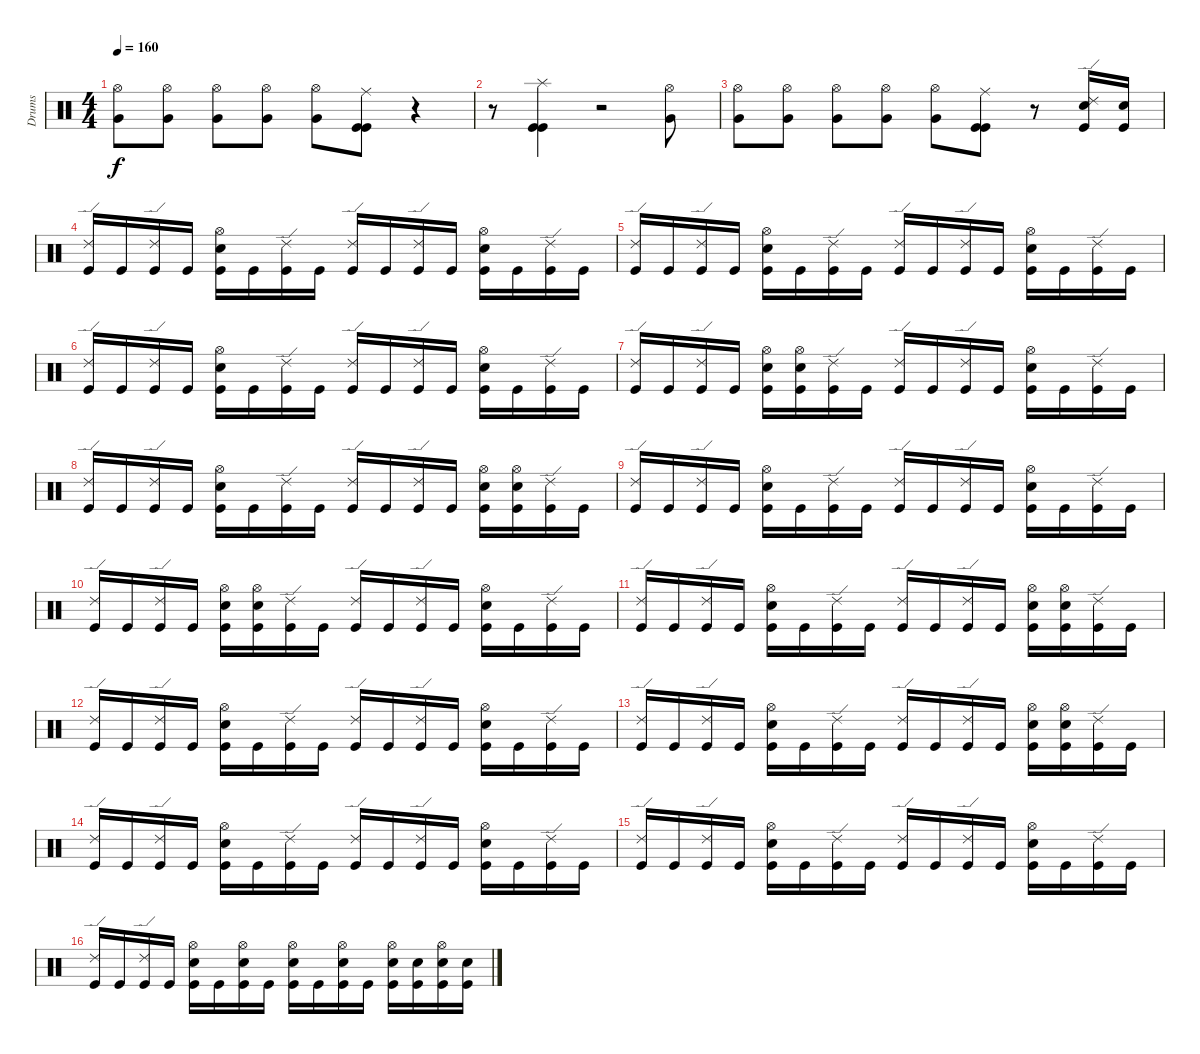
\track ("Drums" "Drums") {instrument percussion}
\staff {score}
\articulation defaults
\ts (4 4)
\tempo 160
\clef neutral
\ks c
("Hi-Hat (open)" "Very Low Tom (hit)").8{dy f} ("Hi-Hat (open)" "Very Low Tom (hit)").8 ("Hi-Hat (open)" "Very Low Tom (hit)").8 ("Hi-Hat (open)" "Very Low Tom (hit)").8 ("Hi-Hat (open)" "Very Low Tom (hit)").8 ("Ride (middle)" "Kick (hit)" "Kick (hit)").8 r.4 |
r.8 ("Splash (hit)" "Kick (hit)" "Kick (hit)").4 r.2 ("Hi-Hat (open)" "Very Low Tom (hit)").8 |
("Hi-Hat (open)" "Very Low Tom (hit)").8 ("Hi-Hat (open)" "Very Low Tom (hit)").8 ("Hi-Hat (open)" "Very Low Tom (hit)").8 ("Hi-Hat (open)" "Very Low Tom (hit)").8 ("Hi-Hat (open)" "Very Low Tom (hit)").8 ("Ride (middle)" "Kick (hit)" "Kick (hit)").8 r.8 ("Ride (edge) 2" "Snare (hit) 2" "Kick (hit)").16 ("Snare (hit) 2" "Kick (hit)").16 |
("Ride (edge) 2" "Kick (hit)").16 "Kick (hit)".16 ("Ride (edge) 2" "Kick (hit)").16 "Kick (hit)".16 ("Hi-Hat (open)" "Snare (hit) 2" "Kick (hit)").16 "Kick (hit)".16 ("Ride (edge) 2" "Kick (hit)").16 "Kick (hit)".16 ("Ride (edge) 2" "Kick (hit)").16 "Kick (hit)".16 ("Ride (edge) 2" "Kick (hit)").16 "Kick (hit)".16 ("Hi-Hat (open)" "Snare (hit) 2" "Kick (hit)").16 "Kick (hit)".16 ("Ride (edge) 2" "Kick (hit)").16 "Kick (hit)".16 |
("Ride (edge) 2" "Kick (hit)").16 "Kick (hit)".16 ("Ride (edge) 2" "Kick (hit)").16 "Kick (hit)".16 ("Hi-Hat (open)" "Snare (hit) 2" "Kick (hit)").16 "Kick (hit)".16 ("Ride (edge) 2" "Kick (hit)").16 "Kick (hit)".16 ("Ride (edge) 2" "Kick (hit)").16 "Kick (hit)".16 ("Ride (edge) 2" "Kick (hit)").16 "Kick (hit)".16 ("Hi-Hat (open)" "Snare (hit) 2" "Kick (hit)").16 "Kick (hit)".16 ("Ride (edge) 2" "Kick (hit)").16 "Kick (hit)".16 |
("Ride (edge) 2" "Kick (hit)").16 "Kick (hit)".16 ("Ride (edge) 2" "Kick (hit)").16 "Kick (hit)".16 ("Hi-Hat (open)" "Snare (hit) 2" "Kick (hit)").16 "Kick (hit)".16 ("Ride (edge) 2" "Kick (hit)").16 "Kick (hit)".16 ("Ride (edge) 2" "Kick (hit)").16 "Kick (hit)".16 ("Ride (edge) 2" "Kick (hit)").16 "Kick (hit)".16 ("Hi-Hat (open)" "Snare (hit) 2" "Kick (hit)").16 "Kick (hit)".16 ("Ride (edge) 2" "Kick (hit)").16 "Kick (hit)".16 |
("Ride (edge) 2" "Kick (hit)").16 "Kick (hit)".16 ("Ride (edge) 2" "Kick (hit)").16 "Kick (hit)".16 ("Hi-Hat (open)" "Snare (hit) 2" "Kick (hit)").16 ("Hi-Hat (open)" "Snare (hit) 2" "Kick (hit)").16 ("Ride (edge) 2" "Kick (hit)").16 "Kick (hit)".16 ("Ride (edge) 2" "Kick (hit)").16 "Kick (hit)".16 ("Ride (edge) 2" "Kick (hit)").16 "Kick (hit)".16 ("Hi-Hat (open)" "Snare (hit) 2" "Kick (hit)").16 "Kick (hit)".16 ("Ride (edge) 2" "Kick (hit)").16 "Kick (hit)".16 |
("Ride (edge) 2" "Kick (hit)").16 "Kick (hit)".16 ("Ride (edge) 2" "Kick (hit)").16 "Kick (hit)".16 ("Hi-Hat (open)" "Snare (hit) 2" "Kick (hit)").16 "Kick (hit)".16 ("Ride (edge) 2" "Kick (hit)").16 "Kick (hit)".16 ("Ride (edge) 2" "Kick (hit)").16 "Kick (hit)".16 ("Ride (edge) 2" "Kick (hit)").16 "Kick (hit)".16 ("Hi-Hat (open)" "Snare (hit) 2" "Kick (hit)").16 ("Hi-Hat (open)" "Snare (hit) 2" "Kick (hit)").16 ("Ride (edge) 2" "Kick (hit)").16 "Kick (hit)".16 |
("Ride (edge) 2" "Kick (hit)").16 "Kick (hit)".16 ("Ride (edge) 2" "Kick (hit)").16 "Kick (hit)".16 ("Hi-Hat (open)" "Snare (hit) 2" "Kick (hit)").16 "Kick (hit)".16 ("Ride (edge) 2" "Kick (hit)").16 "Kick (hit)".16 ("Ride (edge) 2" "Kick (hit)").16 "Kick (hit)".16 ("Ride (edge) 2" "Kick (hit)").16 "Kick (hit)".16 ("Hi-Hat (open)" "Snare (hit) 2" "Kick (hit)").16 "Kick (hit)".16 ("Ride (edge) 2" "Kick (hit)").16 "Kick (hit)".16 |
("Ride (edge) 2" "Kick (hit)").16 "Kick (hit)".16 ("Ride (edge) 2" "Kick (hit)").16 "Kick (hit)".16 ("Hi-Hat (open)" "Snare (hit) 2" "Kick (hit)").16 ("Hi-Hat (open)" "Snare (hit) 2" "Kick (hit)").16 ("Ride (edge) 2" "Kick (hit)").16 "Kick (hit)".16 ("Ride (edge) 2" "Kick (hit)").16 "Kick (hit)".16 ("Ride (edge) 2" "Kick (hit)").16 "Kick (hit)".16 ("Hi-Hat (open)" "Snare (hit) 2" "Kick (hit)").16 "Kick (hit)".16 ("Ride (edge) 2" "Kick (hit)").16 "Kick (hit)".16 |
("Ride (edge) 2" "Kick (hit)").16 "Kick (hit)".16 ("Ride (edge) 2" "Kick (hit)").16 "Kick (hit)".16 ("Hi-Hat (open)" "Snare (hit) 2" "Kick (hit)").16 "Kick (hit)".16 ("Ride (edge) 2" "Kick (hit)").16 "Kick (hit)".16 ("Ride (edge) 2" "Kick (hit)").16 "Kick (hit)".16 ("Ride (edge) 2" "Kick (hit)").16 "Kick (hit)".16 ("Hi-Hat (open)" "Snare (hit) 2" "Kick (hit)").16 ("Hi-Hat (open)" "Snare (hit) 2" "Kick (hit)").16 ("Ride (edge) 2" "Kick (hit)").16 "Kick (hit)".16 |
("Ride (edge) 2" "Kick (hit)").16 "Kick (hit)".16 ("Ride (edge) 2" "Kick (hit)").16 "Kick (hit)".16 ("Hi-Hat (open)" "Snare (hit) 2" "Kick (hit)").16 "Kick (hit)".16 ("Ride (edge) 2" "Kick (hit)").16 "Kick (hit)".16 ("Ride (edge) 2" "Kick (hit)").16 "Kick (hit)".16 ("Ride (edge) 2" "Kick (hit)").16 "Kick (hit)".16 ("Hi-Hat (open)" "Snare (hit) 2" "Kick (hit)").16 "Kick (hit)".16 ("Ride (edge) 2" "Kick (hit)").16 "Kick (hit)".16 |
("Ride (edge) 2" "Kick (hit)").16 "Kick (hit)".16 ("Ride (edge) 2" "Kick (hit)").16 "Kick (hit)".16 ("Hi-Hat (open)" "Snare (hit) 2" "Kick (hit)").16 "Kick (hit)".16 ("Ride (edge) 2" "Kick (hit)").16 "Kick (hit)".16 ("Ride (edge) 2" "Kick (hit)").16 "Kick (hit)".16 ("Ride (edge) 2" "Kick (hit)").16 "Kick (hit)".16 ("Hi-Hat (open)" "Snare (hit) 2" "Kick (hit)").16 ("Hi-Hat (open)" "Snare (hit) 2" "Kick (hit)").16 ("Ride (edge) 2" "Kick (hit)").16 "Kick (hit)".16 |
("Ride (edge) 2" "Kick (hit)").16 "Kick (hit)".16 ("Ride (edge) 2" "Kick (hit)").16 "Kick (hit)".16 ("Hi-Hat (open)" "Snare (hit) 2" "Kick (hit)").16 "Kick (hit)".16 ("Ride (edge) 2" "Kick (hit)").16 "Kick (hit)".16 ("Ride (edge) 2" "Kick (hit)").16 "Kick (hit)".16 ("Ride (edge) 2" "Kick (hit)").16 "Kick (hit)".16 ("Hi-Hat (open)" "Snare (hit) 2" "Kick (hit)").16 "Kick (hit)".16 ("Ride (edge) 2" "Kick (hit)").16 "Kick (hit)".16 |
("Ride (edge) 2" "Kick (hit)").16 "Kick (hit)".16 ("Ride (edge) 2" "Kick (hit)").16 "Kick (hit)".16 ("Hi-Hat (open)" "Snare (hit) 2" "Kick (hit)").16 "Kick (hit)".16 ("Ride (edge) 2" "Kick (hit)").16 "Kick (hit)".16 ("Ride (edge) 2" "Kick (hit)").16 "Kick (hit)".16 ("Ride (edge) 2" "Kick (hit)").16 "Kick (hit)".16 ("Hi-Hat (open)" "Snare (hit) 2" "Kick (hit)").16 "Kick (hit)".16 ("Ride (edge) 2" "Kick (hit)").16 "Kick (hit)".16 |
("Ride (edge) 2" "Kick (hit)").16 "Kick (hit)".16 ("Ride (edge) 2" "Kick (hit)").16 "Kick (hit)".16 ("Hi-Hat (open)" "Snare (hit) 2" "Kick (hit)").16 "Kick (hit)".16 ("Hi-Hat (open)" "Snare (hit) 2" "Kick (hit)").16 "Kick (hit)".16 ("Hi-Hat (open)" "Snare (hit) 2" "Kick (hit)").16 "Kick (hit)".16 ("Hi-Hat (open)" "Snare (hit) 2" "Kick (hit)").16 "Kick (hit)".16 ("Hi-Hat (open)" "Snare (hit) 2" "Kick (hit)").16 ("Snare (hit) 2" "Kick (hit)").16 ("Hi-Hat (open)" "Snare (hit) 2" "Kick (hit)").16 ("Snare (hit) 2" "Kick (hit)").16
